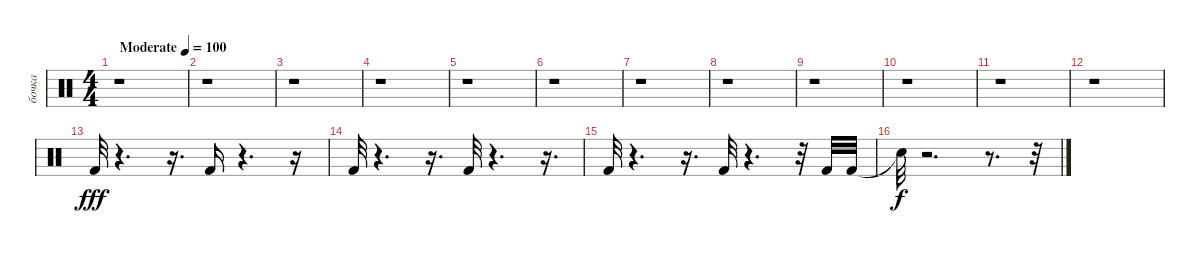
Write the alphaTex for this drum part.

\track ("бочка" "бочка") {instrument percussion}
\staff {score}
\articulation defaults
\ts (4 4)
\tempo (100 "Moderate")
\clef neutral
\ks c
r.1{dy fff} |
r.1 |
r.1 |
r.1 |
r.1 |
r.1 |
r.1 |
r.1 |
r.1 |
r.1 |
r.1 |
r.1 |
"Kick (hit) 2".32 r.4{d} r.16{d} "Kick (hit) 2".16 r.4{d} r.16 |
"Kick (hit) 2".32 r.4{d} r.16{d} "Kick (hit) 2".32 r.4{d} r.16{d} |
"Kick (hit) 2".32 r.4{d} r.16{d} "Kick (hit) 2".32 r.4{d} r.32 "Kick (hit) 2".32 "Kick (hit) 2".32 |
"Snare (hit)"{t}.32{dy f} r.2{d} r.8{d} r.32
